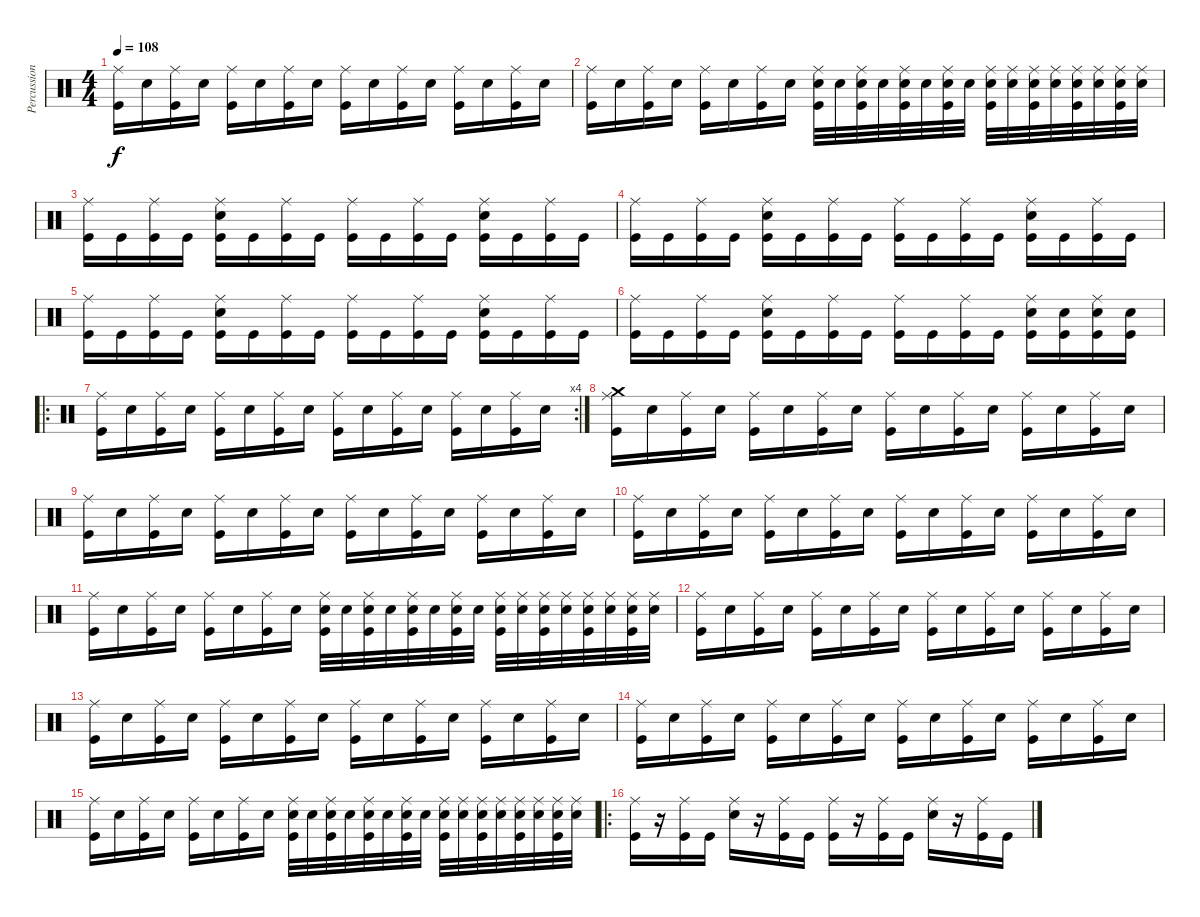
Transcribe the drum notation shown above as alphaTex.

\track ("Percussions" "Percussion") {instrument percussion}
\staff {score}
\articulation defaults
\ts (4 4)
\tempo 108
\clef neutral
\ks c
("Ride (middle)" "Kick (hit)").16{dy f} "Electric Snare (hit)".16 ("Ride (middle)" "Kick (hit)").16 "Electric Snare (hit)".16 ("Ride (middle)" "Kick (hit)").16 "Electric Snare (hit)".16 ("Ride (middle)" "Kick (hit)").16 "Electric Snare (hit)".16 ("Ride (middle)" "Kick (hit)").16 "Electric Snare (hit)".16 ("Ride (middle)" "Kick (hit)").16 "Electric Snare (hit)".16 ("Ride (middle)" "Kick (hit)").16 "Electric Snare (hit)".16 ("Ride (middle)" "Kick (hit)").16 "Electric Snare (hit)".16 |
("Ride (middle)" "Kick (hit)").16 "Electric Snare (hit)".16 ("Ride (middle)" "Kick (hit)").16 "Electric Snare (hit)".16 ("Ride (middle)" "Kick (hit)").16 "Electric Snare (hit)".16 ("Ride (middle)" "Kick (hit)").16 "Electric Snare (hit)".16 ("Ride (middle)" "Electric Snare (hit)" "Kick (hit)").32 "Electric Snare (hit)".32 ("Ride (middle)" "Electric Snare (hit)" "Kick (hit)").32 "Electric Snare (hit)".32 ("Ride (middle)" "Electric Snare (hit)" "Kick (hit)").32 "Electric Snare (hit)".32 ("Ride (middle)" "Electric Snare (hit)" "Kick (hit)").32 "Electric Snare (hit)".32 ("Ride (middle)" "Snare (hit) 2" "Kick (hit)").32 ("Ride (middle)" "Snare (hit) 2").32 ("Ride (middle)" "Snare (hit) 2" "Kick (hit)").32 ("Ride (middle)" "Snare (hit) 2").32 ("Ride (middle)" "Snare (hit) 2" "Kick (hit)").32 ("Ride (middle)" "Snare (hit) 2").32 ("Ride (middle)" "Snare (hit) 2" "Kick (hit)").32 ("Ride (middle)" "Snare (hit) 2").32 |
("Ride (middle)" "Kick (hit)").16 "Kick (hit)".16 ("Ride (middle)" "Kick (hit)").16 "Kick (hit)".16 ("Ride (middle)" "Electric Snare (hit)" "Kick (hit)").16 "Kick (hit)".16 ("Ride (middle)" "Kick (hit)").16 "Kick (hit)".16 ("Ride (middle)" "Kick (hit)").16 "Kick (hit)".16 ("Ride (middle)" "Kick (hit)").16 "Kick (hit)".16 ("Ride (middle)" "Electric Snare (hit)" "Kick (hit)").16 "Kick (hit)".16 ("Ride (middle)" "Kick (hit)").16 "Kick (hit)".16 |
("Ride (middle)" "Kick (hit)").16 "Kick (hit)".16 ("Ride (middle)" "Kick (hit)").16 "Kick (hit)".16 ("Ride (middle)" "Electric Snare (hit)" "Kick (hit)").16 "Kick (hit)".16 ("Ride (middle)" "Kick (hit)").16 "Kick (hit)".16 ("Ride (middle)" "Kick (hit)").16 "Kick (hit)".16 ("Ride (middle)" "Kick (hit)").16 "Kick (hit)".16 ("Ride (middle)" "Electric Snare (hit)" "Kick (hit)").16 "Kick (hit)".16 ("Ride (middle)" "Kick (hit)").16 "Kick (hit)".16 |
("Ride (middle)" "Kick (hit)").16 "Kick (hit)".16 ("Ride (middle)" "Kick (hit)").16 "Kick (hit)".16 ("Ride (middle)" "Electric Snare (hit)" "Kick (hit)").16 "Kick (hit)".16 ("Ride (middle)" "Kick (hit)").16 "Kick (hit)".16 ("Ride (middle)" "Kick (hit)").16 "Kick (hit)".16 ("Ride (middle)" "Kick (hit)").16 "Kick (hit)".16 ("Ride (middle)" "Electric Snare (hit)" "Kick (hit)").16 "Kick (hit)".16 ("Ride (middle)" "Kick (hit)").16 "Kick (hit)".16 |
("Ride (middle)" "Kick (hit)").16 "Kick (hit)".16 ("Ride (middle)" "Kick (hit)").16 "Kick (hit)".16 ("Ride (middle)" "Electric Snare (hit)" "Kick (hit)").16 "Kick (hit)".16 ("Ride (middle)" "Kick (hit)").16 "Kick (hit)".16 ("Ride (middle)" "Kick (hit)").16 "Kick (hit)".16 ("Ride (middle)" "Kick (hit)").16 "Kick (hit)".16 ("Ride (middle)" "Electric Snare (hit)" "Kick (hit)").16 ("Electric Snare (hit)" "Kick (hit)").16 ("Ride (middle)" "Electric Snare (hit)" "Kick (hit)").16 ("Electric Snare (hit)" "Kick (hit)").16 |
\ro
\rc 4
("Ride (middle)" "Kick (hit)").16 "Electric Snare (hit)".16 ("Ride (middle)" "Kick (hit)").16 "Electric Snare (hit)".16 ("Ride (middle)" "Kick (hit)").16 "Electric Snare (hit)".16 ("Ride (middle)" "Kick (hit)").16 "Electric Snare (hit)".16 ("Ride (middle)" "Kick (hit)").16 "Electric Snare (hit)".16 ("Ride (middle)" "Kick (hit)").16 "Electric Snare (hit)".16 ("Ride (middle)" "Kick (hit)").16 "Electric Snare (hit)".16 ("Ride (middle)" "Kick (hit)").16 "Electric Snare (hit)".16 |
("Ride (middle)" "Crash medium (hit)" "Kick (hit)").16 "Electric Snare (hit)".16 ("Ride (middle)" "Kick (hit)").16 "Electric Snare (hit)".16 ("Ride (middle)" "Kick (hit)").16 "Electric Snare (hit)".16 ("Ride (middle)" "Kick (hit)").16 "Electric Snare (hit)".16 ("Ride (middle)" "Kick (hit)").16 "Electric Snare (hit)".16 ("Ride (middle)" "Kick (hit)").16 "Electric Snare (hit)".16 ("Ride (middle)" "Kick (hit)").16 "Electric Snare (hit)".16 ("Ride (middle)" "Kick (hit)").16 "Electric Snare (hit)".16 |
("Ride (middle)" "Kick (hit)").16 "Electric Snare (hit)".16 ("Ride (middle)" "Kick (hit)").16 "Electric Snare (hit)".16 ("Ride (middle)" "Kick (hit)").16 "Electric Snare (hit)".16 ("Ride (middle)" "Kick (hit)").16 "Electric Snare (hit)".16 ("Ride (middle)" "Kick (hit)").16 "Electric Snare (hit)".16 ("Ride (middle)" "Kick (hit)").16 "Electric Snare (hit)".16 ("Ride (middle)" "Kick (hit)").16 "Electric Snare (hit)".16 ("Ride (middle)" "Kick (hit)").16 "Electric Snare (hit)".16 |
("Ride (middle)" "Kick (hit)").16 "Electric Snare (hit)".16 ("Ride (middle)" "Kick (hit)").16 "Electric Snare (hit)".16 ("Ride (middle)" "Kick (hit)").16 "Electric Snare (hit)".16 ("Ride (middle)" "Kick (hit)").16 "Electric Snare (hit)".16 ("Ride (middle)" "Kick (hit)").16 "Electric Snare (hit)".16 ("Ride (middle)" "Kick (hit)").16 "Electric Snare (hit)".16 ("Ride (middle)" "Kick (hit)").16 "Electric Snare (hit)".16 ("Ride (middle)" "Kick (hit)").16 "Electric Snare (hit)".16 |
("Ride (middle)" "Kick (hit)").16 "Electric Snare (hit)".16 ("Ride (middle)" "Kick (hit)").16 "Electric Snare (hit)".16 ("Ride (middle)" "Kick (hit)").16 "Electric Snare (hit)".16 ("Ride (middle)" "Kick (hit)").16 "Electric Snare (hit)".16 ("Ride (middle)" "Electric Snare (hit)" "Kick (hit)").32 "Electric Snare (hit)".32 ("Ride (middle)" "Electric Snare (hit)" "Kick (hit)").32 "Electric Snare (hit)".32 ("Ride (middle)" "Electric Snare (hit)" "Kick (hit)").32 "Electric Snare (hit)".32 ("Ride (middle)" "Electric Snare (hit)" "Kick (hit)").32 "Electric Snare (hit)".32 ("Ride (middle)" "Snare (hit) 2" "Kick (hit)").32 ("Ride (middle)" "Snare (hit) 2").32 ("Ride (middle)" "Snare (hit) 2" "Kick (hit)").32 ("Ride (middle)" "Snare (hit) 2").32 ("Ride (middle)" "Snare (hit) 2" "Kick (hit)").32 ("Ride (middle)" "Snare (hit) 2").32 ("Ride (middle)" "Snare (hit) 2" "Kick (hit)").32 ("Ride (middle)" "Snare (hit) 2").32 |
("Ride (middle)" "Kick (hit)").16 "Electric Snare (hit)".16 ("Ride (middle)" "Kick (hit)").16 "Electric Snare (hit)".16 ("Ride (middle)" "Kick (hit)").16 "Electric Snare (hit)".16 ("Ride (middle)" "Kick (hit)").16 "Electric Snare (hit)".16 ("Ride (middle)" "Kick (hit)").16 "Electric Snare (hit)".16 ("Ride (middle)" "Kick (hit)").16 "Electric Snare (hit)".16 ("Ride (middle)" "Kick (hit)").16 "Electric Snare (hit)".16 ("Ride (middle)" "Kick (hit)").16 "Electric Snare (hit)".16 |
("Ride (middle)" "Kick (hit)").16 "Electric Snare (hit)".16 ("Ride (middle)" "Kick (hit)").16 "Electric Snare (hit)".16 ("Ride (middle)" "Kick (hit)").16 "Electric Snare (hit)".16 ("Ride (middle)" "Kick (hit)").16 "Electric Snare (hit)".16 ("Ride (middle)" "Kick (hit)").16 "Electric Snare (hit)".16 ("Ride (middle)" "Kick (hit)").16 "Electric Snare (hit)".16 ("Ride (middle)" "Kick (hit)").16 "Electric Snare (hit)".16 ("Ride (middle)" "Kick (hit)").16 "Electric Snare (hit)".16 |
("Ride (middle)" "Kick (hit)").16 "Electric Snare (hit)".16 ("Ride (middle)" "Kick (hit)").16 "Electric Snare (hit)".16 ("Ride (middle)" "Kick (hit)").16 "Electric Snare (hit)".16 ("Ride (middle)" "Kick (hit)").16 "Electric Snare (hit)".16 ("Ride (middle)" "Kick (hit)").16 "Electric Snare (hit)".16 ("Ride (middle)" "Kick (hit)").16 "Electric Snare (hit)".16 ("Ride (middle)" "Kick (hit)").16 "Electric Snare (hit)".16 ("Ride (middle)" "Kick (hit)").16 "Electric Snare (hit)".16 |
("Ride (middle)" "Kick (hit)").16 "Electric Snare (hit)".16 ("Ride (middle)" "Kick (hit)").16 "Electric Snare (hit)".16 ("Ride (middle)" "Kick (hit)").16 "Electric Snare (hit)".16 ("Ride (middle)" "Kick (hit)").16 "Electric Snare (hit)".16 ("Ride (middle)" "Electric Snare (hit)" "Kick (hit)").32 "Electric Snare (hit)".32 ("Ride (middle)" "Electric Snare (hit)" "Kick (hit)").32 "Electric Snare (hit)".32 ("Ride (middle)" "Electric Snare (hit)" "Kick (hit)").32 "Electric Snare (hit)".32 ("Ride (middle)" "Electric Snare (hit)" "Kick (hit)").32 "Electric Snare (hit)".32 ("Ride (middle)" "Snare (hit) 2" "Kick (hit)").32 ("Ride (middle)" "Snare (hit) 2").32 ("Ride (middle)" "Snare (hit) 2" "Kick (hit)").32 ("Ride (middle)" "Snare (hit) 2").32 ("Ride (middle)" "Snare (hit) 2" "Kick (hit)").32 ("Ride (middle)" "Snare (hit) 2").32 ("Ride (middle)" "Snare (hit) 2" "Kick (hit)").32 ("Ride (middle)" "Snare (hit) 2").32 |
\ro
("Ride (middle)" "Kick (hit)").16 r.16 ("Ride (middle)" "Kick (hit)").16 "Kick (hit)".16 ("Ride (middle)" "Electric Snare (hit)").16 r.16 ("Ride (middle)" "Kick (hit)").16 "Kick (hit)".16 ("Ride (middle)" "Kick (hit)").16 r.16 ("Ride (middle)" "Kick (hit)").16 "Kick (hit)".16 ("Ride (middle)" "Electric Snare (hit)").16 r.16 ("Ride (middle)" "Kick (hit)").16 "Kick (hit)".16
